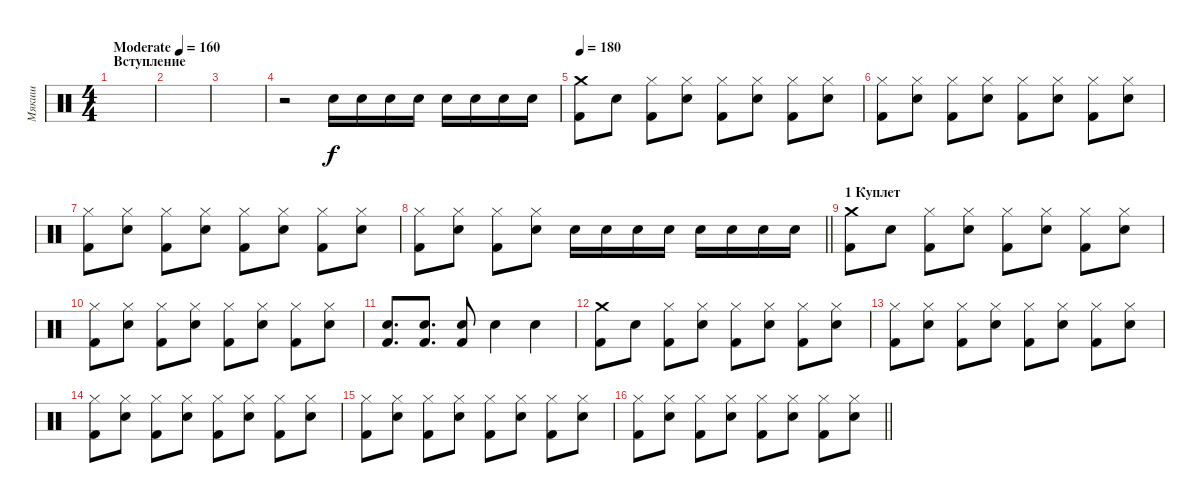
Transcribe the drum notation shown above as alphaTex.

\track ("Мякиш" "Мякиш") {instrument percussion}
\staff {score}
\articulation defaults
\ts (4 4)
\section ("" "Вступление")
\tempo (160 "Moderate")
\clef neutral
\ks c
|
|
|
r.2 "Electric Snare (hit)".16 "Electric Snare (hit)".16 "Electric Snare (hit)".16 "Electric Snare (hit)".16 "Electric Snare (hit)".16 "Electric Snare (hit)".16 "Electric Snare (hit)".16 "Electric Snare (hit)".16 |
\tempo 180
("Crash medium (hit)" "Kick (hit) 2").8 "Electric Snare (hit)".8 ("Hi-Hat (closed)" "Kick (hit) 2").8 ("Hi-Hat (closed)" "Electric Snare (hit)").8 ("Hi-Hat (closed)" "Kick (hit) 2").8 ("Hi-Hat (closed)" "Electric Snare (hit)").8 ("Hi-Hat (closed)" "Kick (hit) 2").8 ("Hi-Hat (closed)" "Electric Snare (hit)").8 |
("Hi-Hat (closed)" "Kick (hit) 2").8 ("Hi-Hat (closed)" "Electric Snare (hit)").8 ("Hi-Hat (closed)" "Kick (hit) 2").8 ("Hi-Hat (closed)" "Electric Snare (hit)").8 ("Hi-Hat (closed)" "Kick (hit) 2").8 ("Hi-Hat (closed)" "Electric Snare (hit)").8 ("Hi-Hat (closed)" "Kick (hit) 2").8 ("Hi-Hat (closed)" "Electric Snare (hit)").8 |
("Hi-Hat (closed)" "Kick (hit) 2").8 ("Hi-Hat (closed)" "Electric Snare (hit)").8 ("Hi-Hat (closed)" "Kick (hit) 2").8 ("Hi-Hat (closed)" "Electric Snare (hit)").8 ("Hi-Hat (closed)" "Kick (hit) 2").8 ("Hi-Hat (closed)" "Electric Snare (hit)").8 ("Hi-Hat (closed)" "Kick (hit) 2").8 ("Hi-Hat (closed)" "Electric Snare (hit)").8 |
\barLineRight lightlight
("Hi-Hat (closed)" "Kick (hit) 2").8 ("Hi-Hat (closed)" "Electric Snare (hit)").8 ("Hi-Hat (closed)" "Kick (hit) 2").8 ("Hi-Hat (closed)" "Electric Snare (hit)").8 "Electric Snare (hit)".16 "Electric Snare (hit)".16 "Electric Snare (hit)".16 "Electric Snare (hit)".16 "Electric Snare (hit)".16 "Electric Snare (hit)".16 "Electric Snare (hit)".16 "Electric Snare (hit)".16 |
\section ("" "1 Куплет")
("Crash medium (hit)" "Kick (hit) 2").8 "Electric Snare (hit)".8 ("Hi-Hat (closed)" "Kick (hit) 2").8 ("Hi-Hat (closed)" "Electric Snare (hit)").8 ("Hi-Hat (closed)" "Kick (hit) 2").8 ("Hi-Hat (closed)" "Electric Snare (hit)").8 ("Hi-Hat (closed)" "Kick (hit) 2").8 ("Hi-Hat (closed)" "Electric Snare (hit)").8 |
("Hi-Hat (closed)" "Kick (hit) 2").8 ("Hi-Hat (closed)" "Electric Snare (hit)").8 ("Hi-Hat (closed)" "Kick (hit) 2").8 ("Hi-Hat (closed)" "Electric Snare (hit)").8 ("Hi-Hat (closed)" "Kick (hit) 2").8 ("Hi-Hat (closed)" "Electric Snare (hit)").8 ("Hi-Hat (closed)" "Kick (hit) 2").8 ("Hi-Hat (closed)" "Electric Snare (hit)").8 |
("Electric Snare (hit)" "Kick (hit) 2").8{d} ("Electric Snare (hit)" "Kick (hit) 2").8{d} ("Electric Snare (hit)" "Kick (hit) 2").8 "Electric Snare (hit)".4 "Electric Snare (hit)".4 |
("Crash medium (hit)" "Kick (hit) 2").8 "Electric Snare (hit)".8 ("Hi-Hat (closed)" "Kick (hit) 2").8 ("Hi-Hat (closed)" "Electric Snare (hit)").8 ("Hi-Hat (closed)" "Kick (hit) 2").8 ("Hi-Hat (closed)" "Electric Snare (hit)").8 ("Hi-Hat (closed)" "Kick (hit) 2").8 ("Hi-Hat (closed)" "Electric Snare (hit)").8 |
("Hi-Hat (closed)" "Kick (hit) 2").8 ("Hi-Hat (closed)" "Electric Snare (hit)").8 ("Hi-Hat (closed)" "Kick (hit) 2").8 ("Hi-Hat (closed)" "Electric Snare (hit)").8 ("Hi-Hat (closed)" "Kick (hit) 2").8 ("Hi-Hat (closed)" "Electric Snare (hit)").8 ("Hi-Hat (closed)" "Kick (hit) 2").8 ("Hi-Hat (closed)" "Electric Snare (hit)").8 |
("Hi-Hat (closed)" "Kick (hit) 2").8 ("Hi-Hat (closed)" "Electric Snare (hit)").8 ("Hi-Hat (closed)" "Kick (hit) 2").8 ("Hi-Hat (closed)" "Electric Snare (hit)").8 ("Hi-Hat (closed)" "Kick (hit) 2").8 ("Hi-Hat (closed)" "Electric Snare (hit)").8 ("Hi-Hat (closed)" "Kick (hit) 2").8 ("Hi-Hat (closed)" "Electric Snare (hit)").8 |
("Hi-Hat (closed)" "Kick (hit) 2").8 ("Hi-Hat (closed)" "Electric Snare (hit)").8 ("Hi-Hat (closed)" "Kick (hit) 2").8 ("Hi-Hat (closed)" "Electric Snare (hit)").8 ("Hi-Hat (closed)" "Kick (hit) 2").8 ("Hi-Hat (closed)" "Electric Snare (hit)").8 ("Hi-Hat (closed)" "Kick (hit) 2").8 ("Hi-Hat (closed)" "Electric Snare (hit)").8 |
\barLineRight lightlight
("Hi-Hat (closed)" "Kick (hit) 2").8 ("Hi-Hat (closed)" "Electric Snare (hit)").8 ("Hi-Hat (closed)" "Kick (hit) 2").8 ("Hi-Hat (closed)" "Electric Snare (hit)").8 ("Hi-Hat (closed)" "Kick (hit) 2").8 ("Hi-Hat (closed)" "Electric Snare (hit)").8 ("Hi-Hat (closed)" "Kick (hit) 2").8 ("Hi-Hat (closed)" "Electric Snare (hit)").8
